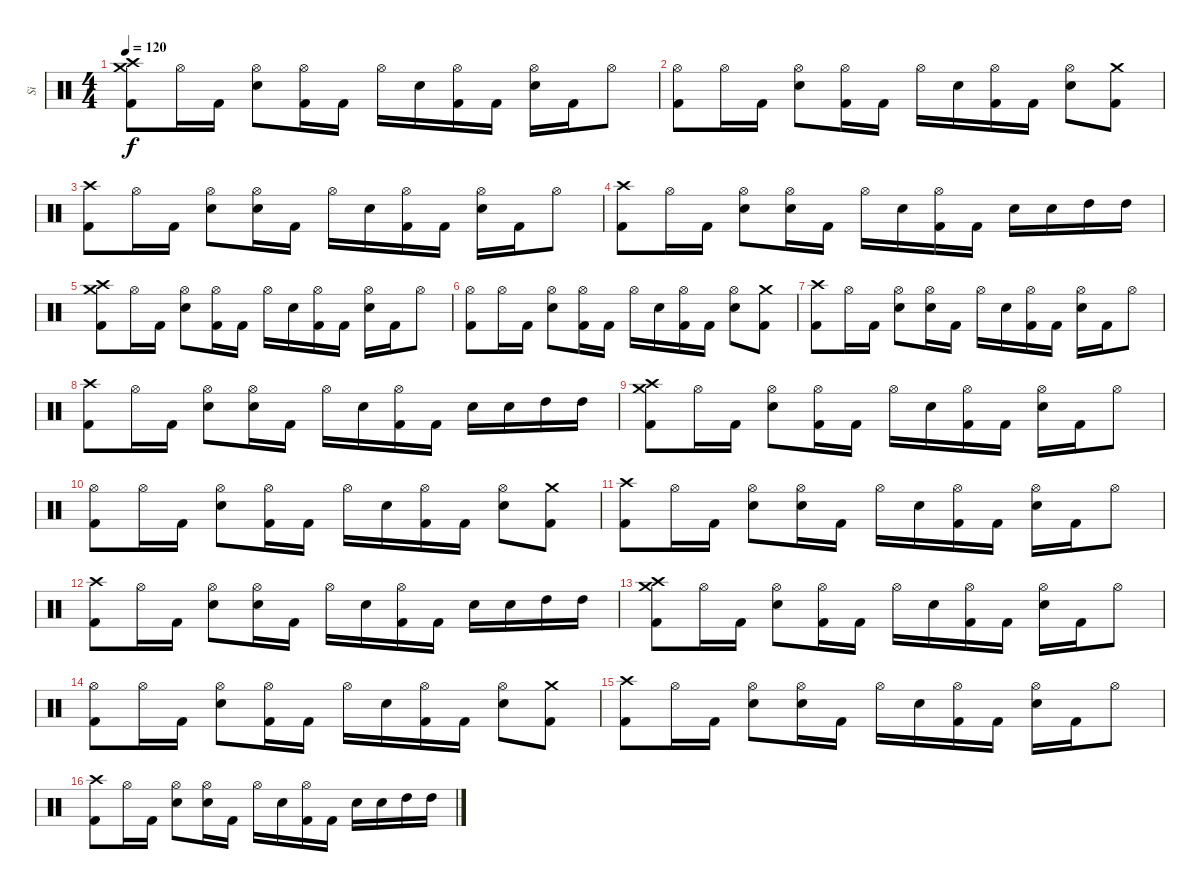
\track ("Si" "Si") {instrument percussion}
\staff {score}
\articulation defaults
\ts (4 4)
\tempo 120
\clef neutral
\ks c
("Crash high (hit)" "Crash medium (hit)" "Kick (hit) 2").8{dy f} "Hi-Hat (open)".16 "Kick (hit) 2".16 ("Hi-Hat (open)" "Electric Snare (hit)").8 ("Hi-Hat (open)" "Kick (hit) 2").16 "Kick (hit) 2".16 "Hi-Hat (open)".16 "Electric Snare (hit)".16 ("Hi-Hat (open)" "Kick (hit) 2").16 "Kick (hit) 2".16 ("Hi-Hat (open)" "Electric Snare (hit)").16 "Kick (hit) 2".16 "Hi-Hat (open)".8 |
("Hi-Hat (open)" "Kick (hit) 2").8 "Hi-Hat (open)".16 "Kick (hit) 2".16 ("Hi-Hat (open)" "Electric Snare (hit)").8 ("Hi-Hat (open)" "Kick (hit) 2").16 "Kick (hit) 2".16 "Hi-Hat (open)".16 "Electric Snare (hit)".16 ("Hi-Hat (open)" "Kick (hit) 2").16 "Kick (hit) 2".16 ("Hi-Hat (open)" "Electric Snare (hit)").8 ("Crash medium (hit)" "Kick (hit) 2").8 |
("Crash high (hit)" "Kick (hit) 2").8 "Hi-Hat (open)".16 "Kick (hit) 2".16 ("Hi-Hat (open)" "Electric Snare (hit)").8 ("Hi-Hat (open)" "Electric Snare (hit)").16 "Kick (hit) 2".16 "Hi-Hat (open)".16 "Electric Snare (hit)".16 ("Hi-Hat (open)" "Kick (hit) 2").16 "Kick (hit) 2".16 ("Hi-Hat (open)" "Electric Snare (hit)").16 "Kick (hit) 2".16 "Hi-Hat (open)".8 |
("Crash high (hit)" "Kick (hit) 2").8 "Hi-Hat (open)".16 "Kick (hit) 2".16 ("Hi-Hat (open)" "Electric Snare (hit)").8 ("Hi-Hat (open)" "Electric Snare (hit)").16 "Kick (hit) 2".16 "Hi-Hat (open)".16 "Electric Snare (hit)".16 ("Hi-Hat (open)" "Kick (hit) 2").16 "Kick (hit) 2".16 "Electric Snare (hit)".16 "Electric Snare (hit)".16 "High Tom (hit)".16 "High Tom (hit)".16 |
("Crash high (hit)" "Crash medium (hit)" "Kick (hit) 2").8 "Hi-Hat (open)".16 "Kick (hit) 2".16 ("Hi-Hat (open)" "Electric Snare (hit)").8 ("Hi-Hat (open)" "Kick (hit) 2").16 "Kick (hit) 2".16 "Hi-Hat (open)".16 "Electric Snare (hit)".16 ("Hi-Hat (open)" "Kick (hit) 2").16 "Kick (hit) 2".16 ("Hi-Hat (open)" "Electric Snare (hit)").16 "Kick (hit) 2".16 "Hi-Hat (open)".8 |
("Hi-Hat (open)" "Kick (hit) 2").8 "Hi-Hat (open)".16 "Kick (hit) 2".16 ("Hi-Hat (open)" "Electric Snare (hit)").8 ("Hi-Hat (open)" "Kick (hit) 2").16 "Kick (hit) 2".16 "Hi-Hat (open)".16 "Electric Snare (hit)".16 ("Hi-Hat (open)" "Kick (hit) 2").16 "Kick (hit) 2".16 ("Hi-Hat (open)" "Electric Snare (hit)").8 ("Crash medium (hit)" "Kick (hit) 2").8 |
("Crash high (hit)" "Kick (hit) 2").8 "Hi-Hat (open)".16 "Kick (hit) 2".16 ("Hi-Hat (open)" "Electric Snare (hit)").8 ("Hi-Hat (open)" "Electric Snare (hit)").16 "Kick (hit) 2".16 "Hi-Hat (open)".16 "Electric Snare (hit)".16 ("Hi-Hat (open)" "Kick (hit) 2").16 "Kick (hit) 2".16 ("Hi-Hat (open)" "Electric Snare (hit)").16 "Kick (hit) 2".16 "Hi-Hat (open)".8 |
("Crash high (hit)" "Kick (hit) 2").8 "Hi-Hat (open)".16 "Kick (hit) 2".16 ("Hi-Hat (open)" "Electric Snare (hit)").8 ("Hi-Hat (open)" "Electric Snare (hit)").16 "Kick (hit) 2".16 "Hi-Hat (open)".16 "Electric Snare (hit)".16 ("Hi-Hat (open)" "Kick (hit) 2").16 "Kick (hit) 2".16 "Electric Snare (hit)".16 "Electric Snare (hit)".16 "High Tom (hit)".16 "High Tom (hit)".16 |
("Crash high (hit)" "Crash medium (hit)" "Kick (hit) 2").8 "Hi-Hat (open)".16 "Kick (hit) 2".16 ("Hi-Hat (open)" "Electric Snare (hit)").8 ("Hi-Hat (open)" "Kick (hit) 2").16 "Kick (hit) 2".16 "Hi-Hat (open)".16 "Electric Snare (hit)".16 ("Hi-Hat (open)" "Kick (hit) 2").16 "Kick (hit) 2".16 ("Hi-Hat (open)" "Electric Snare (hit)").16 "Kick (hit) 2".16 "Hi-Hat (open)".8 |
("Hi-Hat (open)" "Kick (hit) 2").8 "Hi-Hat (open)".16 "Kick (hit) 2".16 ("Hi-Hat (open)" "Electric Snare (hit)").8 ("Hi-Hat (open)" "Kick (hit) 2").16 "Kick (hit) 2".16 "Hi-Hat (open)".16 "Electric Snare (hit)".16 ("Hi-Hat (open)" "Kick (hit) 2").16 "Kick (hit) 2".16 ("Hi-Hat (open)" "Electric Snare (hit)").8 ("Crash medium (hit)" "Kick (hit) 2").8 |
("Crash high (hit)" "Kick (hit) 2").8 "Hi-Hat (open)".16 "Kick (hit) 2".16 ("Hi-Hat (open)" "Electric Snare (hit)").8 ("Hi-Hat (open)" "Electric Snare (hit)").16 "Kick (hit) 2".16 "Hi-Hat (open)".16 "Electric Snare (hit)".16 ("Hi-Hat (open)" "Kick (hit) 2").16 "Kick (hit) 2".16 ("Hi-Hat (open)" "Electric Snare (hit)").16 "Kick (hit) 2".16 "Hi-Hat (open)".8 |
("Crash high (hit)" "Kick (hit) 2").8 "Hi-Hat (open)".16 "Kick (hit) 2".16 ("Hi-Hat (open)" "Electric Snare (hit)").8 ("Hi-Hat (open)" "Electric Snare (hit)").16 "Kick (hit) 2".16 "Hi-Hat (open)".16 "Electric Snare (hit)".16 ("Hi-Hat (open)" "Kick (hit) 2").16 "Kick (hit) 2".16 "Electric Snare (hit)".16 "Electric Snare (hit)".16 "High Tom (hit)".16 "High Tom (hit)".16 |
("Crash high (hit)" "Crash medium (hit)" "Kick (hit) 2").8 "Hi-Hat (open)".16 "Kick (hit) 2".16 ("Hi-Hat (open)" "Electric Snare (hit)").8 ("Hi-Hat (open)" "Kick (hit) 2").16 "Kick (hit) 2".16 "Hi-Hat (open)".16 "Electric Snare (hit)".16 ("Hi-Hat (open)" "Kick (hit) 2").16 "Kick (hit) 2".16 ("Hi-Hat (open)" "Electric Snare (hit)").16 "Kick (hit) 2".16 "Hi-Hat (open)".8 |
("Hi-Hat (open)" "Kick (hit) 2").8 "Hi-Hat (open)".16 "Kick (hit) 2".16 ("Hi-Hat (open)" "Electric Snare (hit)").8 ("Hi-Hat (open)" "Kick (hit) 2").16 "Kick (hit) 2".16 "Hi-Hat (open)".16 "Electric Snare (hit)".16 ("Hi-Hat (open)" "Kick (hit) 2").16 "Kick (hit) 2".16 ("Hi-Hat (open)" "Electric Snare (hit)").8 ("Crash medium (hit)" "Kick (hit) 2").8 |
("Crash high (hit)" "Kick (hit) 2").8 "Hi-Hat (open)".16 "Kick (hit) 2".16 ("Hi-Hat (open)" "Electric Snare (hit)").8 ("Hi-Hat (open)" "Electric Snare (hit)").16 "Kick (hit) 2".16 "Hi-Hat (open)".16 "Electric Snare (hit)".16 ("Hi-Hat (open)" "Kick (hit) 2").16 "Kick (hit) 2".16 ("Hi-Hat (open)" "Electric Snare (hit)").16 "Kick (hit) 2".16 "Hi-Hat (open)".8 |
("Crash high (hit)" "Kick (hit) 2").8 "Hi-Hat (open)".16 "Kick (hit) 2".16 ("Hi-Hat (open)" "Electric Snare (hit)").8 ("Hi-Hat (open)" "Electric Snare (hit)").16 "Kick (hit) 2".16 "Hi-Hat (open)".16 "Electric Snare (hit)".16 ("Hi-Hat (open)" "Kick (hit) 2").16 "Kick (hit) 2".16 "Electric Snare (hit)".16 "Electric Snare (hit)".16 "High Tom (hit)".16 "High Tom (hit)".16
